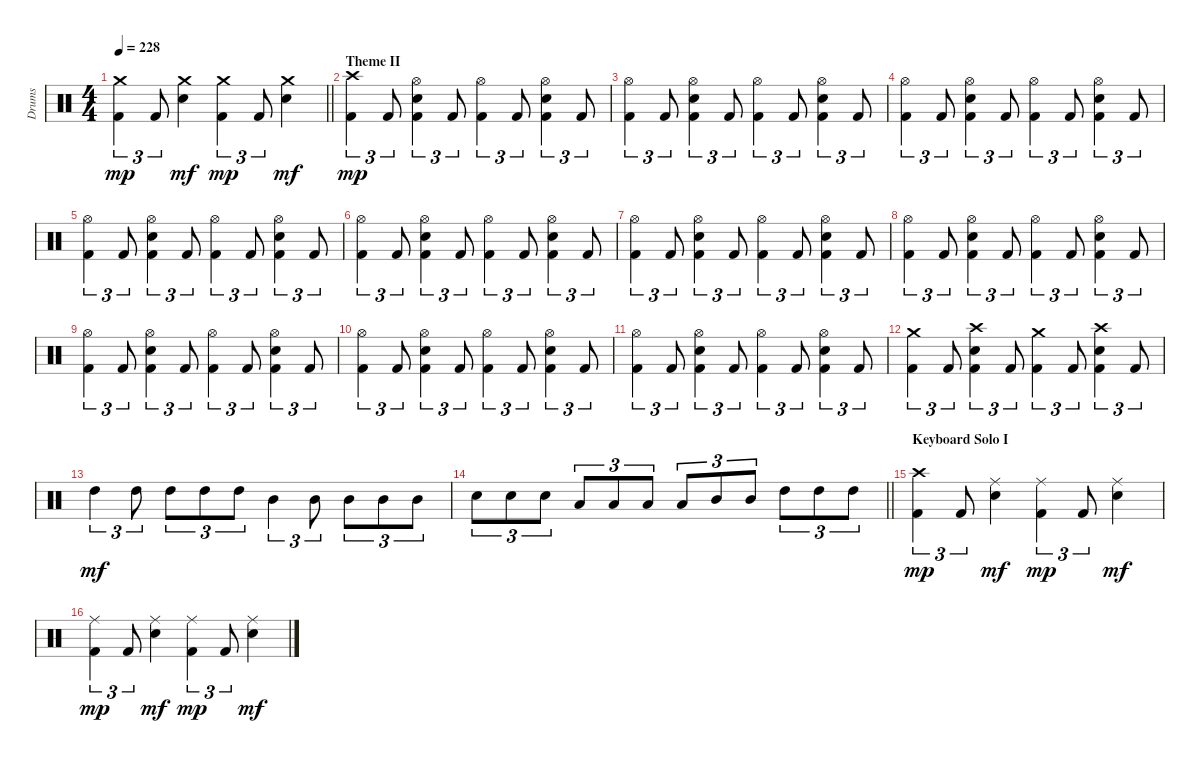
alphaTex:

\track ("Drums" "Drums") {instrument percussion}
\staff {score}
\articulation defaults
\ts (4 4)
\tempo 228
\clef neutral
\barLineRight lightlight
\ks c
("Crash medium (hit)" "Kick (hit) 2").4{tu (3 2) dy mp} "Kick (hit) 2".8{tu (3 2)} ("Crash medium (hit)" "Electric Snare (hit)").4{dy mf} ("Crash medium (hit)" "Kick (hit) 2").4{tu (3 2) dy mp} "Kick (hit) 2".8{tu (3 2)} ("Crash medium (hit)" "Electric Snare (hit)").4{dy mf} |
\section ("" "Theme II")
("Crash high (hit)" "Kick (hit) 2").4{tu (3 2) dy mp} "Kick (hit) 2".8{tu (3 2)} ("Hi-Hat (open)" "Electric Snare (hit)" "Kick (hit) 2").4{tu (3 2)} "Kick (hit) 2".8{tu (3 2)} ("Hi-Hat (open)" "Kick (hit) 2").4{tu (3 2)} "Kick (hit) 2".8{tu (3 2)} ("Hi-Hat (open)" "Electric Snare (hit)" "Kick (hit) 2").4{tu (3 2)} "Kick (hit) 2".8{tu (3 2)} |
("Hi-Hat (open)" "Kick (hit) 2").4{tu (3 2)} "Kick (hit) 2".8{tu (3 2)} ("Hi-Hat (open)" "Electric Snare (hit)" "Kick (hit) 2").4{tu (3 2)} "Kick (hit) 2".8{tu (3 2)} ("Hi-Hat (open)" "Kick (hit) 2").4{tu (3 2)} "Kick (hit) 2".8{tu (3 2)} ("Hi-Hat (open)" "Electric Snare (hit)" "Kick (hit) 2").4{tu (3 2)} "Kick (hit) 2".8{tu (3 2)} |
("Hi-Hat (open)" "Kick (hit) 2").4{tu (3 2)} "Kick (hit) 2".8{tu (3 2)} ("Hi-Hat (open)" "Electric Snare (hit)" "Kick (hit) 2").4{tu (3 2)} "Kick (hit) 2".8{tu (3 2)} ("Hi-Hat (open)" "Kick (hit) 2").4{tu (3 2)} "Kick (hit) 2".8{tu (3 2)} ("Hi-Hat (open)" "Electric Snare (hit)" "Kick (hit) 2").4{tu (3 2)} "Kick (hit) 2".8{tu (3 2)} |
("Hi-Hat (open)" "Kick (hit) 2").4{tu (3 2)} "Kick (hit) 2".8{tu (3 2)} ("Hi-Hat (open)" "Electric Snare (hit)" "Kick (hit) 2").4{tu (3 2)} "Kick (hit) 2".8{tu (3 2)} ("Hi-Hat (open)" "Kick (hit) 2").4{tu (3 2)} "Kick (hit) 2".8{tu (3 2)} ("Hi-Hat (open)" "Electric Snare (hit)" "Kick (hit) 2").4{tu (3 2)} "Kick (hit) 2".8{tu (3 2)} |
("Hi-Hat (open)" "Kick (hit) 2").4{tu (3 2)} "Kick (hit) 2".8{tu (3 2)} ("Hi-Hat (open)" "Electric Snare (hit)" "Kick (hit) 2").4{tu (3 2)} "Kick (hit) 2".8{tu (3 2)} ("Hi-Hat (open)" "Kick (hit) 2").4{tu (3 2)} "Kick (hit) 2".8{tu (3 2)} ("Hi-Hat (open)" "Electric Snare (hit)" "Kick (hit) 2").4{tu (3 2)} "Kick (hit) 2".8{tu (3 2)} |
("Hi-Hat (open)" "Kick (hit) 2").4{tu (3 2)} "Kick (hit) 2".8{tu (3 2)} ("Hi-Hat (open)" "Electric Snare (hit)" "Kick (hit) 2").4{tu (3 2)} "Kick (hit) 2".8{tu (3 2)} ("Hi-Hat (open)" "Kick (hit) 2").4{tu (3 2)} "Kick (hit) 2".8{tu (3 2)} ("Hi-Hat (open)" "Electric Snare (hit)" "Kick (hit) 2").4{tu (3 2)} "Kick (hit) 2".8{tu (3 2)} |
("Hi-Hat (open)" "Kick (hit) 2").4{tu (3 2)} "Kick (hit) 2".8{tu (3 2)} ("Hi-Hat (open)" "Electric Snare (hit)" "Kick (hit) 2").4{tu (3 2)} "Kick (hit) 2".8{tu (3 2)} ("Hi-Hat (open)" "Kick (hit) 2").4{tu (3 2)} "Kick (hit) 2".8{tu (3 2)} ("Hi-Hat (open)" "Electric Snare (hit)" "Kick (hit) 2").4{tu (3 2)} "Kick (hit) 2".8{tu (3 2)} |
("Hi-Hat (open)" "Kick (hit) 2").4{tu (3 2)} "Kick (hit) 2".8{tu (3 2)} ("Hi-Hat (open)" "Electric Snare (hit)" "Kick (hit) 2").4{tu (3 2)} "Kick (hit) 2".8{tu (3 2)} ("Hi-Hat (open)" "Kick (hit) 2").4{tu (3 2)} "Kick (hit) 2".8{tu (3 2)} ("Hi-Hat (open)" "Electric Snare (hit)" "Kick (hit) 2").4{tu (3 2)} "Kick (hit) 2".8{tu (3 2)} |
("Hi-Hat (open)" "Kick (hit) 2").4{tu (3 2)} "Kick (hit) 2".8{tu (3 2)} ("Hi-Hat (open)" "Electric Snare (hit)" "Kick (hit) 2").4{tu (3 2)} "Kick (hit) 2".8{tu (3 2)} ("Hi-Hat (open)" "Kick (hit) 2").4{tu (3 2)} "Kick (hit) 2".8{tu (3 2)} ("Hi-Hat (open)" "Electric Snare (hit)" "Kick (hit) 2").4{tu (3 2)} "Kick (hit) 2".8{tu (3 2)} |
("Hi-Hat (open)" "Kick (hit) 2").4{tu (3 2)} "Kick (hit) 2".8{tu (3 2)} ("Hi-Hat (open)" "Electric Snare (hit)" "Kick (hit) 2").4{tu (3 2)} "Kick (hit) 2".8{tu (3 2)} ("Hi-Hat (open)" "Kick (hit) 2").4{tu (3 2)} "Kick (hit) 2".8{tu (3 2)} ("Hi-Hat (open)" "Electric Snare (hit)" "Kick (hit) 2").4{tu (3 2)} "Kick (hit) 2".8{tu (3 2)} |
("Crash medium (hit)" "Kick (hit) 2").4{tu (3 2)} "Kick (hit) 2".8{tu (3 2)} ("Crash high (hit)" "Electric Snare (hit)" "Kick (hit) 2").4{tu (3 2)} "Kick (hit) 2".8{tu (3 2)} ("Crash medium (hit)" "Kick (hit) 2").4{tu (3 2)} "Kick (hit) 2".8{tu (3 2)} ("Crash high (hit)" "Electric Snare (hit)" "Kick (hit) 2").4{tu (3 2)} "Kick (hit) 2".8{tu (3 2)} |
"High Tom (hit)".4{tu (3 2) dy mf} "High Tom (hit)".8{tu (3 2)} "High Tom (hit)".8{tu (3 2)} "High Tom (hit)".8{tu (3 2)} "High Tom (hit)".8{tu (3 2)} "Mid Tom (hit)".4{tu (3 2)} "Mid Tom (hit)".8{tu (3 2)} "Mid Tom (hit)".8{tu (3 2)} "Mid Tom (hit)".8{tu (3 2)} "Mid Tom (hit)".8{tu (3 2)} |
\barLineRight lightlight "Electric Snare (hit)".8{tu (3 2)} "Electric Snare (hit)".8{tu (3 2)} "Electric Snare (hit)".8{tu (3 2)} "Low Tom (hit)".8{tu (3 2)} "Low Tom (hit)".8{tu (3 2)} "Low Tom (hit)".8{tu (3 2)} "Low Floor Tom (hit)".8{tu (3 2)} "Mid Tom (hit)".8{tu (3 2)} "Mid Tom (hit)".8{tu (3 2)} "High Tom (hit)".8{tu (3 2)} "High Tom (hit)".8{tu (3 2)} "High Tom (hit)".8{tu (3 2)}
|
\section ("" "Keyboard Solo I")
("Crash high (hit)" "Kick (hit) 2").4{tu (3 2) dy mp} "Kick (hit) 2".8{tu (3 2)} ("Ride (middle)" "Electric Snare (hit)").4{dy mf} ("Ride (middle)" "Kick (hit) 2").4{tu (3 2) dy mp} "Kick (hit) 2".8{tu (3 2)} ("Ride (middle)" "Electric Snare (hit)").4{dy mf} |
("Ride (middle)" "Kick (hit) 2").4{tu (3 2) dy mp} "Kick (hit) 2".8{tu (3 2)} ("Ride (middle)" "Electric Snare (hit)").4{dy mf} ("Ride (middle)" "Kick (hit) 2").4{tu (3 2) dy mp} "Kick (hit) 2".8{tu (3 2)} ("Ride (middle)" "Electric Snare (hit)").4{dy mf}
